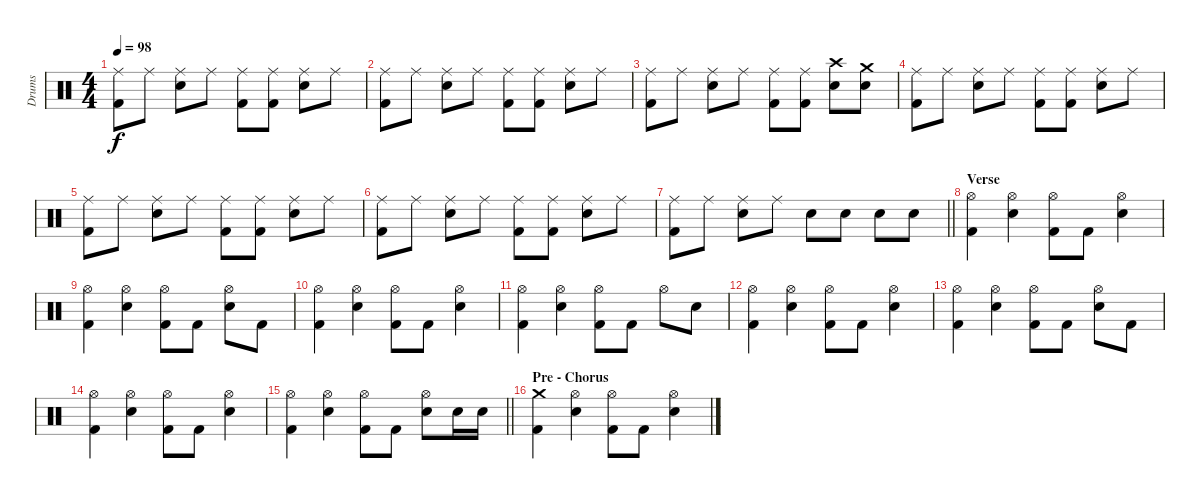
\track ("Drums" "Drums") {instrument percussion}
\staff {score}
\articulation defaults
\ts (4 4)
\tempo 98
\clef neutral
\ks c
("Ride (middle)" "Kick (hit) 2").8{dy f} "Ride (middle)".8 ("Ride (middle)" "Snare (hit) 2").8 "Ride (middle)".8 ("Ride (middle)" "Kick (hit) 2").8 ("Ride (middle)" "Kick (hit) 2").8 ("Ride (middle)" "Snare (hit) 2").8 "Ride (middle)".8 |
("Ride (middle)" "Kick (hit) 2").8 "Ride (middle)".8 ("Ride (middle)" "Snare (hit) 2").8 "Ride (middle)".8 ("Ride (middle)" "Kick (hit) 2").8 ("Ride (middle)" "Kick (hit) 2").8 ("Ride (middle)" "Snare (hit) 2").8 "Ride (middle)".8 |
("Ride (middle)" "Kick (hit) 2").8 "Ride (middle)".8 ("Ride (middle)" "Snare (hit) 2").8 "Ride (middle)".8 ("Ride (middle)" "Kick (hit) 2").8 ("Ride (middle)" "Kick (hit) 2").8 ("Crash high (hit)" "Snare (hit) 2").8 ("Crash medium (hit)" "Snare (hit) 2").8 |
("Ride (middle)" "Kick (hit) 2").8 "Ride (middle)".8 ("Ride (middle)" "Snare (hit) 2").8 "Ride (middle)".8 ("Ride (middle)" "Kick (hit) 2").8 ("Ride (middle)" "Kick (hit) 2").8 ("Ride (middle)" "Snare (hit) 2").8 "Ride (middle)".8 |
("Ride (middle)" "Kick (hit) 2").8 "Ride (middle)".8 ("Ride (middle)" "Snare (hit) 2").8 "Ride (middle)".8 ("Ride (middle)" "Kick (hit) 2").8 ("Ride (middle)" "Kick (hit) 2").8 ("Ride (middle)" "Snare (hit) 2").8 "Ride (middle)".8 |
("Ride (middle)" "Kick (hit) 2").8 "Ride (middle)".8 ("Ride (middle)" "Snare (hit) 2").8 "Ride (middle)".8 ("Ride (middle)" "Kick (hit) 2").8 ("Ride (middle)" "Kick (hit) 2").8 ("Ride (middle)" "Snare (hit) 2").8 "Ride (middle)".8 |
\barLineRight lightlight
("Ride (middle)" "Kick (hit) 2").8 "Ride (middle)".8 ("Ride (middle)" "Snare (hit) 2").8 "Ride (middle)".8 "Snare (hit) 2".8 "Snare (hit) 2".8 "Snare (hit) 2".8 "Snare (hit) 2".8 |
\section ("" "Verse")
("Hi-Hat (open)" "Kick (hit) 2").4 ("Hi-Hat (open)" "Snare (hit) 2").4 ("Hi-Hat (open)" "Kick (hit) 2").8 "Kick (hit) 2".8 ("Hi-Hat (open)" "Snare (hit) 2").4 |
("Hi-Hat (open)" "Kick (hit) 2").4 ("Hi-Hat (open)" "Snare (hit) 2").4 ("Hi-Hat (open)" "Kick (hit) 2").8 "Kick (hit) 2".8 ("Hi-Hat (open)" "Snare (hit) 2").8 "Kick (hit) 2".8 |
("Hi-Hat (open)" "Kick (hit) 2").4 ("Hi-Hat (open)" "Snare (hit) 2").4 ("Hi-Hat (open)" "Kick (hit) 2").8 "Kick (hit) 2".8 ("Hi-Hat (open)" "Snare (hit) 2").4 |
("Hi-Hat (open)" "Kick (hit) 2").4 ("Hi-Hat (open)" "Snare (hit) 2").4 ("Hi-Hat (open)" "Kick (hit) 2").8 "Kick (hit) 2".8 "Hi-Hat (open)".8 "Snare (hit) 2".8 |
("Hi-Hat (open)" "Kick (hit) 2").4 ("Hi-Hat (open)" "Snare (hit) 2").4 ("Hi-Hat (open)" "Kick (hit) 2").8 "Kick (hit) 2".8 ("Hi-Hat (open)" "Snare (hit) 2").4 |
("Hi-Hat (open)" "Kick (hit) 2").4 ("Hi-Hat (open)" "Snare (hit) 2").4 ("Hi-Hat (open)" "Kick (hit) 2").8 "Kick (hit) 2".8 ("Hi-Hat (open)" "Snare (hit) 2").8 "Kick (hit) 2".8 |
("Hi-Hat (open)" "Kick (hit) 2").4 ("Hi-Hat (open)" "Snare (hit) 2").4 ("Hi-Hat (open)" "Kick (hit) 2").8 "Kick (hit) 2".8 ("Hi-Hat (open)" "Snare (hit) 2").4 |
\barLineRight lightlight
("Hi-Hat (open)" "Kick (hit) 2").4 ("Hi-Hat (open)" "Snare (hit) 2").4 ("Hi-Hat (open)" "Kick (hit) 2").8 "Kick (hit) 2".8 ("Hi-Hat (open)" "Snare (hit) 2").8 "Snare (hit) 2".16 "Snare (hit) 2".16 |
\section ("" "Pre - Chorus")
("Crash medium (hit)" "Kick (hit) 2").4 ("Hi-Hat (open)" "Snare (hit) 2").4 ("Hi-Hat (open)" "Kick (hit) 2").8 "Kick (hit) 2".8 ("Hi-Hat (open)" "Snare (hit) 2").4
